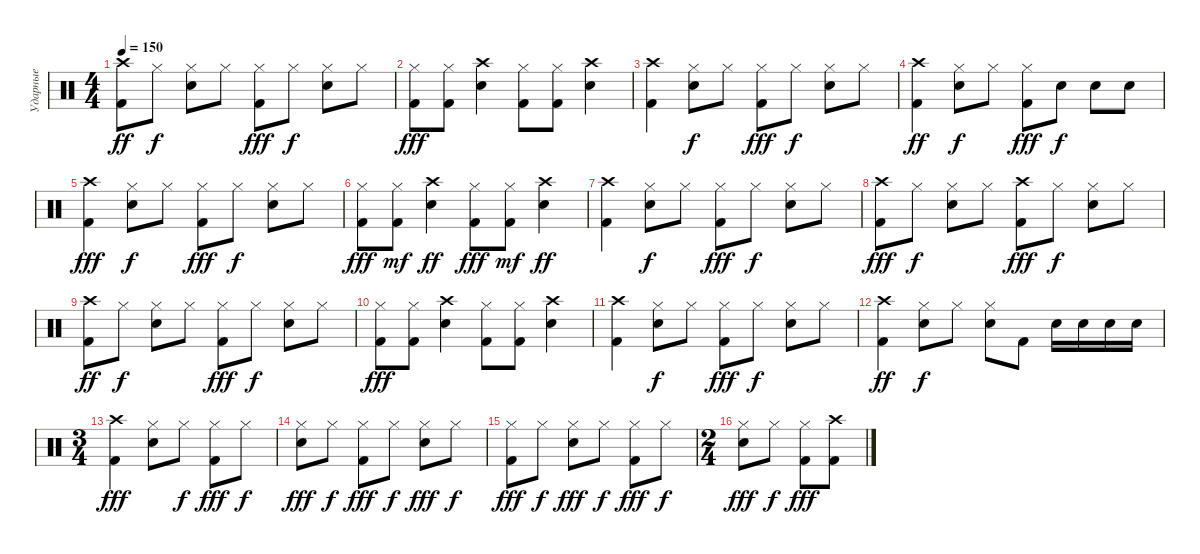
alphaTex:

\track ("Ударные" "Ударные") {instrument percussion}
\staff {score}
\articulation defaults
\ts (4 4)
\tempo 150
\clef neutral
\ks c
("Kick (hit) 2" "Crash high (hit)").8{dy ff} "Hi-Hat (closed)".8{dy f} ("Snare (hit) 2" "Hi-Hat (closed)").8 "Hi-Hat (closed)".8 ("Kick (hit) 2" "Hi-Hat (closed)").8{dy fff} "Hi-Hat (closed)".8{dy f} ("Snare (hit) 2" "Hi-Hat (closed)").8 "Hi-Hat (closed)".8 |
("Kick (hit) 2" "Hi-Hat (closed)").8{dy fff} ("Kick (hit) 2" "Hi-Hat (closed)").8 ("Snare (hit) 2" "Crash high (hit)").4 ("Kick (hit) 2" "Hi-Hat (closed)").8 ("Kick (hit) 2" "Hi-Hat (closed)").8 ("Snare (hit) 2" "Crash high (hit)").4 |
("Kick (hit) 2" "Crash high (hit)").4 ("Snare (hit) 2" "Hi-Hat (closed)").8{dy f} "Hi-Hat (closed)".8 ("Kick (hit) 2" "Hi-Hat (closed)").8{dy fff} "Hi-Hat (closed)".8{dy f} ("Snare (hit) 2" "Hi-Hat (closed)").8 "Hi-Hat (closed)".8 |
("Kick (hit) 2" "Crash high (hit)").4{dy ff} ("Snare (hit) 2" "Hi-Hat (closed)").8{dy f} "Hi-Hat (closed)".8 ("Kick (hit) 2" "Hi-Hat (closed)").8{dy fff} "Snare (hit) 2".8{dy f} "Snare (hit) 2".8 "Snare (hit) 2".8 |
("Kick (hit) 2" "Crash high (hit)").4{dy fff} ("Snare (hit) 2" "Hi-Hat (closed)").8{dy f} "Hi-Hat (closed)".8 ("Kick (hit) 2" "Hi-Hat (closed)").8{dy fff} "Hi-Hat (closed)".8{dy f} ("Snare (hit) 2" "Hi-Hat (closed)").8 "Hi-Hat (closed)".8 |
("Kick (hit) 2" "Hi-Hat (closed)").8{dy fff} ("Kick (hit) 2" "Hi-Hat (closed)").8{dy mf} ("Snare (hit) 2" "Crash high (hit)").4{dy ff} ("Kick (hit) 2" "Hi-Hat (closed)").8{dy fff} ("Kick (hit) 2" "Hi-Hat (closed)").8{dy mf} ("Snare (hit) 2" "Crash high (hit)").4{dy ff} |
("Kick (hit) 2" "Crash high (hit)").4 ("Snare (hit) 2" "Hi-Hat (closed)").8{dy f} "Hi-Hat (closed)".8 ("Kick (hit) 2" "Hi-Hat (closed)").8{dy fff} "Hi-Hat (closed)".8{dy f} ("Snare (hit) 2" "Hi-Hat (closed)").8 "Hi-Hat (closed)".8 |
("Kick (hit) 2" "Crash high (hit)").8{dy fff} "Hi-Hat (closed)".8{dy f} ("Snare (hit) 2" "Hi-Hat (closed)").8 "Hi-Hat (closed)".8 ("Kick (hit) 2" "Crash high (hit)").8{dy fff} "Hi-Hat (closed)".8{dy f} ("Snare (hit) 2" "Hi-Hat (closed)").8 "Hi-Hat (closed)".8 |
("Kick (hit) 2" "Crash high (hit)").8{dy ff} "Hi-Hat (closed)".8{dy f} ("Snare (hit) 2" "Hi-Hat (closed)").8 "Hi-Hat (closed)".8 ("Kick (hit) 2" "Hi-Hat (closed)").8{dy fff} "Hi-Hat (closed)".8{dy f} ("Snare (hit) 2" "Hi-Hat (closed)").8 "Hi-Hat (closed)".8 |
("Kick (hit) 2" "Hi-Hat (closed)").8{dy fff} ("Kick (hit) 2" "Hi-Hat (closed)").8 ("Snare (hit) 2" "Crash high (hit)").4 ("Kick (hit) 2" "Hi-Hat (closed)").8 ("Kick (hit) 2" "Hi-Hat (closed)").8 ("Snare (hit) 2" "Crash high (hit)").4 |
("Kick (hit) 2" "Crash high (hit)").4 ("Snare (hit) 2" "Hi-Hat (closed)").8{dy f} "Hi-Hat (closed)".8 ("Kick (hit) 2" "Hi-Hat (closed)").8{dy fff} "Hi-Hat (closed)".8{dy f} ("Snare (hit) 2" "Hi-Hat (closed)").8 "Hi-Hat (closed)".8 |
("Kick (hit) 2" "Crash high (hit)").4{dy ff} ("Snare (hit) 2" "Hi-Hat (closed)").8{dy f} "Hi-Hat (closed)".8 ("Snare (hit) 2" "Hi-Hat (closed)").8 "Kick (hit) 2".8 "Snare (hit) 2".16 "Snare (hit) 2".16 "Snare (hit) 2".16 "Snare (hit) 2".16 |
\ts (3 4)
("Kick (hit) 2" "Crash high (hit)").4{dy fff} ("Snare (hit) 2" "Hi-Hat (closed)").8 "Hi-Hat (closed)".8{dy f} ("Kick (hit) 2" "Hi-Hat (closed)").8{dy fff} "Hi-Hat (closed)".8{dy f} |
("Snare (hit) 2" "Hi-Hat (closed)").8{dy fff} "Hi-Hat (closed)".8{dy f} ("Kick (hit) 2" "Hi-Hat (closed)").8{dy fff} "Hi-Hat (closed)".8{dy f} ("Snare (hit) 2" "Hi-Hat (closed)").8{dy fff} "Hi-Hat (closed)".8{dy f} |
("Kick (hit) 2" "Hi-Hat (closed)").8{dy fff} "Hi-Hat (closed)".8{dy f} ("Snare (hit) 2" "Hi-Hat (closed)").8{dy fff} "Hi-Hat (closed)".8{dy f} ("Kick (hit) 2" "Hi-Hat (closed)").8{dy fff} "Hi-Hat (closed)".8{dy f} |
\ts (2 4)
("Snare (hit) 2" "Hi-Hat (closed)").8{dy fff} "Hi-Hat (closed)".8{dy f} ("Kick (hit) 2" "Hi-Hat (closed)").8{dy fff} ("Kick (hit) 2" "Crash high (hit)").8
